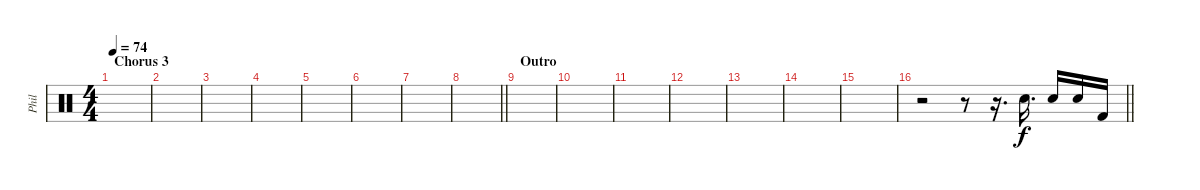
\track ("Phil" "Phil") {instrument percussion}
\staff {score}
\articulation defaults
\ts (4 4)
\section ("" "Chorus 3")
\tempo 74
\clef neutral
\ks c
|
|
|
|
|
|
|
\barLineRight lightlight
|
\section ("" "Outro")
|
|
|
|
|
|
|
\barLineRight lightlight
r.2 r.8 r.16{d} "Snare (hit) 2".16{d} "Snare (hit) 2".16 "Snare (hit) 2".16 "Kick (hit) 2".16
